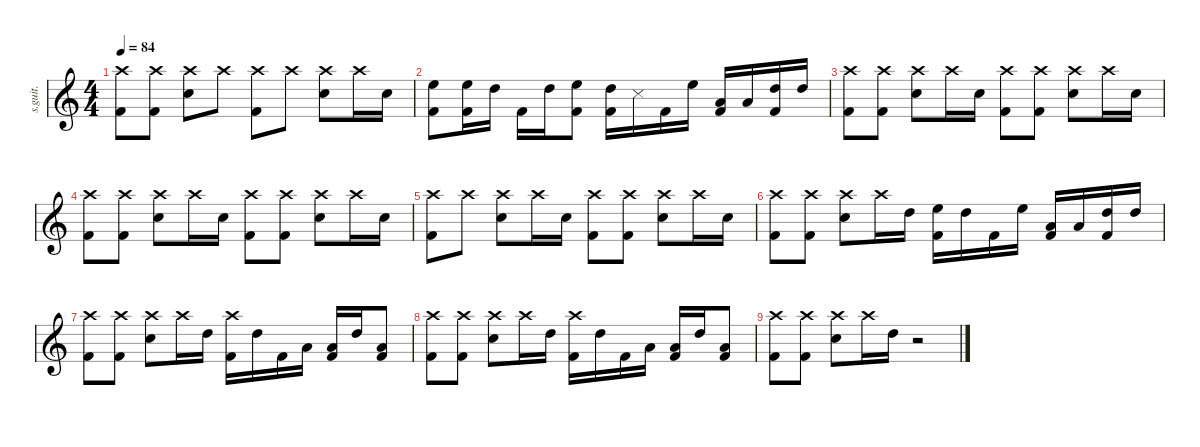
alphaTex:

\defaultSystemsLayout 4
\hideDynamics
\bracketExtendMode nobrackets
\track ("Ringo Starr - Drums" "s.guit.") {instrument percussion}
\staff {score}
\articulation defaults
\ts (4 4)
\tempo 84
\clef g2
\ks c
("Crash high (hit)" "Kick (hit) 2").8{lyrics (0 "") lyrics (1 "") lyrics (2 "") lyrics (3 "") lyrics (4 "") dy f} ("Kick (hit) 2" "Crash high (hit)").8{lyrics (0 "") lyrics (1 "") lyrics (2 "") lyrics (3 "") lyrics (4 "")} ("Crash high (hit)" "Snare (hit) 2").8{lyrics (0 "") lyrics (1 "") lyrics (2 "") lyrics (3 "") lyrics (4 "")} "Crash high (hit)".8{lyrics (0 "") lyrics (1 "") lyrics (2 "") lyrics (3 "") lyrics (4 "") dy mf} ("Crash high (hit)" "Kick (hit) 2").8{lyrics (0 "") lyrics (1 "") lyrics (2 "") lyrics (3 "") lyrics (4 "") dy f} "Crash high (hit)".8{lyrics (0 "") lyrics (1 "") lyrics (2 "") lyrics (3 "") lyrics (4 "")} ("Crash high (hit)" "Snare (hit) 2").8{lyrics (0 "") lyrics (1 "") lyrics (2 "") lyrics (3 "") lyrics (4 "")} "Crash high (hit)".16{lyrics (0 "") lyrics (1 "") lyrics (2 "") lyrics (3 "") lyrics (4 "") dy mf} "Snare (hit) 2".16{lyrics (0 "") lyrics (1 "") lyrics (2 "") lyrics (3 "") lyrics (4 "")} |
("Kick (hit) 2" "High Floor Tom (hit)").8{lyrics (0 "") lyrics (1 "") lyrics (2 "") lyrics (3 "") lyrics (4 "")} ("Kick (hit) 2" "High Floor Tom (hit)").16{lyrics (0 "") lyrics (1 "") lyrics (2 "") lyrics (3 "") lyrics (4 "")} "High Tom (hit)".16{lyrics (0 "") lyrics (1 "") lyrics (2 "") lyrics (3 "") lyrics (4 "")} "Kick (hit) 2".16{lyrics (0 "") lyrics (1 "") lyrics (2 "") lyrics (3 "") lyrics (4 "")} "High Tom (hit)".16{lyrics (0 "") lyrics (1 "") lyrics (2 "") lyrics (3 "") lyrics (4 "")} ("High Floor Tom (hit)" "Kick (hit) 2").8{lyrics (0 "") lyrics (1 "") lyrics (2 "") lyrics (3 "") lyrics (4 "")} ("High Tom (hit)" "Kick (hit) 2").16{lyrics (0 "") lyrics (1 "") lyrics (2 "") lyrics (3 "") lyrics (4 "")} "Snare (side stick) 3".16{lyrics (0 "") lyrics (1 "") lyrics (2 "") lyrics (3 "") lyrics (4 "")} "Kick (hit) 2".16{lyrics (0 "") lyrics (1 "") lyrics (2 "") lyrics (3 "") lyrics (4 "")} "High Floor Tom (hit)".16{lyrics (0 "") lyrics (1 "") lyrics (2 "") lyrics (3 "") lyrics (4 "")} ("Low Tom (hit)" "Kick (hit) 2").16{lyrics (0 "") lyrics (1 "") lyrics (2 "") lyrics (3 "") lyrics (4 "")} "Low Tom (hit)".16{lyrics (0 "") lyrics (1 "") lyrics (2 "") lyrics (3 "") lyrics (4 "")} ("High Tom (hit)" "Kick (hit) 2").16{lyrics (0 "") lyrics (1 "") lyrics (2 "") lyrics (3 "") lyrics (4 "")} "High Tom (hit)".16{lyrics (0 "") lyrics (1 "") lyrics (2 "") lyrics (3 "") lyrics (4 "")} |
("Crash high (hit)" "Kick (hit) 2").8{lyrics (0 "") lyrics (1 "") lyrics (2 "") lyrics (3 "") lyrics (4 "") dy f} ("Kick (hit) 2" "Crash high (hit)").8{lyrics (0 "") lyrics (1 "") lyrics (2 "") lyrics (3 "") lyrics (4 "")} ("Crash high (hit)" "Snare (hit) 2").8{lyrics (0 "") lyrics (1 "") lyrics (2 "") lyrics (3 "") lyrics (4 "")} "Crash high (hit)".16{lyrics (0 "") lyrics (1 "") lyrics (2 "") lyrics (3 "") lyrics (4 "") dy mf} "Snare (hit) 2".16{lyrics (0 "") lyrics (1 "") lyrics (2 "") lyrics (3 "") lyrics (4 "")} ("Crash high (hit)" "Kick (hit) 2").8{lyrics (0 "") lyrics (1 "") lyrics (2 "") lyrics (3 "") lyrics (4 "") dy f} ("Kick (hit) 2" "Crash high (hit)").8{lyrics (0 "") lyrics (1 "") lyrics (2 "") lyrics (3 "") lyrics (4 "")} ("Crash high (hit)" "Snare (hit) 2").8{lyrics (0 "") lyrics (1 "") lyrics (2 "") lyrics (3 "") lyrics (4 "")} "Crash high (hit)".16{lyrics (0 "") lyrics (1 "") lyrics (2 "") lyrics (3 "") lyrics (4 "") dy mf} "Snare (hit) 2".16{lyrics (0 "") lyrics (1 "") lyrics (2 "") lyrics (3 "") lyrics (4 "")} |
("Crash high (hit)" "Kick (hit) 2").8{lyrics (0 "") lyrics (1 "") lyrics (2 "") lyrics (3 "") lyrics (4 "") dy f} ("Kick (hit) 2" "Crash high (hit)").8{lyrics (0 "") lyrics (1 "") lyrics (2 "") lyrics (3 "") lyrics (4 "")} ("Crash high (hit)" "Snare (hit) 2").8{lyrics (0 "") lyrics (1 "") lyrics (2 "") lyrics (3 "") lyrics (4 "")} "Crash high (hit)".16{lyrics (0 "") lyrics (1 "") lyrics (2 "") lyrics (3 "") lyrics (4 "") dy mf} "Snare (hit) 2".16{lyrics (0 "") lyrics (1 "") lyrics (2 "") lyrics (3 "") lyrics (4 "")} ("Crash high (hit)" "Kick (hit) 2").8{lyrics (0 "") lyrics (1 "") lyrics (2 "") lyrics (3 "") lyrics (4 "") dy f} ("Kick (hit) 2" "Crash high (hit)").8{lyrics (0 "") lyrics (1 "") lyrics (2 "") lyrics (3 "") lyrics (4 "")} ("Crash high (hit)" "Snare (hit) 2").8{lyrics (0 "") lyrics (1 "") lyrics (2 "") lyrics (3 "") lyrics (4 "")} "Crash high (hit)".16{lyrics (0 "") lyrics (1 "") lyrics (2 "") lyrics (3 "") lyrics (4 "") dy mf} "Snare (hit) 2".16{lyrics (0 "") lyrics (1 "") lyrics (2 "") lyrics (3 "") lyrics (4 "")} |
("Crash high (hit)" "Kick (hit) 2").8{lyrics (0 "") lyrics (1 "") lyrics (2 "") lyrics (3 "") lyrics (4 "") dy f} "Crash high (hit)".8{lyrics (0 "") lyrics (1 "") lyrics (2 "") lyrics (3 "") lyrics (4 "") dy mf} ("Crash high (hit)" "Snare (hit) 2").8{lyrics (0 "") lyrics (1 "") lyrics (2 "") lyrics (3 "") lyrics (4 "") dy f} "Crash high (hit)".16{lyrics (0 "") lyrics (1 "") lyrics (2 "") lyrics (3 "") lyrics (4 "") dy mf} "Snare (hit) 2".16{lyrics (0 "") lyrics (1 "") lyrics (2 "") lyrics (3 "") lyrics (4 "")} ("Crash high (hit)" "Kick (hit) 2").8{lyrics (0 "") lyrics (1 "") lyrics (2 "") lyrics (3 "") lyrics (4 "") dy f} ("Kick (hit) 2" "Crash high (hit)").8{lyrics (0 "") lyrics (1 "") lyrics (2 "") lyrics (3 "") lyrics (4 "")} ("Crash high (hit)" "Snare (hit) 2").8{lyrics (0 "") lyrics (1 "") lyrics (2 "") lyrics (3 "") lyrics (4 "")} "Crash high (hit)".16{lyrics (0 "") lyrics (1 "") lyrics (2 "") lyrics (3 "") lyrics (4 "") dy mf} "Snare (hit) 2".16{lyrics (0 "") lyrics (1 "") lyrics (2 "") lyrics (3 "") lyrics (4 "")} |
("Crash high (hit)" "Kick (hit) 2").8{lyrics (0 "") lyrics (1 "") lyrics (2 "") lyrics (3 "") lyrics (4 "") dy f} ("Kick (hit) 2" "Crash high (hit)").8{lyrics (0 "") lyrics (1 "") lyrics (2 "") lyrics (3 "") lyrics (4 "")} ("Crash high (hit)" "Snare (hit) 2").8{lyrics (0 "") lyrics (1 "") lyrics (2 "") lyrics (3 "") lyrics (4 "")} "Crash high (hit)".16{lyrics (0 "") lyrics (1 "") lyrics (2 "") lyrics (3 "") lyrics (4 "") dy mf} "High Tom (hit)".16{lyrics (0 "") lyrics (1 "") lyrics (2 "") lyrics (3 "") lyrics (4 "")} ("Kick (hit) 2" "High Floor Tom (hit)").16{lyrics (0 "") lyrics (1 "") lyrics (2 "") lyrics (3 "") lyrics (4 "") dy f} "High Tom (hit)".16{lyrics (0 "") lyrics (1 "") lyrics (2 "") lyrics (3 "") lyrics (4 "")} "Kick (hit) 2".16{lyrics (0 "") lyrics (1 "") lyrics (2 "") lyrics (3 "") lyrics (4 "")} "High Floor Tom (hit)".16{lyrics (0 "") lyrics (1 "") lyrics (2 "") lyrics (3 "") lyrics (4 "")} ("Kick (hit) 2" "Low Tom (hit)").16{lyrics (0 "") lyrics (1 "") lyrics (2 "") lyrics (3 "") lyrics (4 "")} "Low Tom (hit)".16{lyrics (0 "") lyrics (1 "") lyrics (2 "") lyrics (3 "") lyrics (4 "")} ("Kick (hit) 2" "High Tom (hit)").16{lyrics (0 "") lyrics (1 "") lyrics (2 "") lyrics (3 "") lyrics (4 "")} "High Tom (hit)".16{lyrics (0 "") lyrics (1 "") lyrics (2 "") lyrics (3 "") lyrics (4 "")} |
("Crash high (hit)" "Kick (hit) 2").8{lyrics (0 "") lyrics (1 "") lyrics (2 "") lyrics (3 "") lyrics (4 "")} ("Kick (hit) 2" "Crash high (hit)").8{lyrics (0 "") lyrics (1 "") lyrics (2 "") lyrics (3 "") lyrics (4 "")} ("Crash high (hit)" "Snare (hit) 2").8{lyrics (0 "") lyrics (1 "") lyrics (2 "") lyrics (3 "") lyrics (4 "")} "Crash high (hit)".16{lyrics (0 "") lyrics (1 "") lyrics (2 "") lyrics (3 "") lyrics (4 "") dy mf} "High Tom (hit)".16{lyrics (0 "") lyrics (1 "") lyrics (2 "") lyrics (3 "") lyrics (4 "")} ("Kick (hit) 2" "Crash high (hit)").16{lyrics (0 "") lyrics (1 "") lyrics (2 "") lyrics (3 "") lyrics (4 "") dy f} "High Tom (hit)".16{lyrics (0 "") lyrics (1 "") lyrics (2 "") lyrics (3 "") lyrics (4 "")} "Kick (hit) 2".16{lyrics (0 "") lyrics (1 "") lyrics (2 "") lyrics (3 "") lyrics (4 "")} "Low Tom (hit)".16{lyrics (0 "") lyrics (1 "") lyrics (2 "") lyrics (3 "") lyrics (4 "")} ("Low Tom (hit)" "Kick (hit) 2").16{lyrics (0 "") lyrics (1 "") lyrics (2 "") lyrics (3 "") lyrics (4 "")} "High Tom (hit)".16{lyrics (0 "") lyrics (1 "") lyrics (2 "") lyrics (3 "") lyrics (4 "")} ("Low Tom (hit)" "Kick (hit) 2").8{lyrics (0 "") lyrics (1 "") lyrics (2 "") lyrics (3 "") lyrics (4 "")} |
("Crash high (hit)" "Kick (hit) 2").8{lyrics (0 "") lyrics (1 "") lyrics (2 "") lyrics (3 "") lyrics (4 "")} ("Kick (hit) 2" "Crash high (hit)").8{lyrics (0 "") lyrics (1 "") lyrics (2 "") lyrics (3 "") lyrics (4 "")} ("Crash high (hit)" "Snare (hit) 2").8{lyrics (0 "") lyrics (1 "") lyrics (2 "") lyrics (3 "") lyrics (4 "")} "Crash high (hit)".16{lyrics (0 "") lyrics (1 "") lyrics (2 "") lyrics (3 "") lyrics (4 "") dy mf} "High Tom (hit)".16{lyrics (0 "") lyrics (1 "") lyrics (2 "") lyrics (3 "") lyrics (4 "")} ("Kick (hit) 2" "Crash high (hit)").16{lyrics (0 "") lyrics (1 "") lyrics (2 "") lyrics (3 "") lyrics (4 "") dy f} "High Tom (hit)".16{lyrics (0 "") lyrics (1 "") lyrics (2 "") lyrics (3 "") lyrics (4 "")} "Kick (hit) 2".16{lyrics (0 "") lyrics (1 "") lyrics (2 "") lyrics (3 "") lyrics (4 "")} "Low Tom (hit)".16{lyrics (0 "") lyrics (1 "") lyrics (2 "") lyrics (3 "") lyrics (4 "")} ("Low Tom (hit)" "Kick (hit) 2").16{lyrics (0 "") lyrics (1 "") lyrics (2 "") lyrics (3 "") lyrics (4 "")} "High Tom (hit)".16{lyrics (0 "") lyrics (1 "") lyrics (2 "") lyrics (3 "") lyrics (4 "")} ("Low Tom (hit)" "Kick (hit) 2").8{lyrics (0 "") lyrics (1 "") lyrics (2 "") lyrics (3 "") lyrics (4 "")} |
("Crash high (hit)" "Kick (hit) 2").8{lyrics (0 "") lyrics (1 "") lyrics (2 "") lyrics (3 "") lyrics (4 "")} ("Kick (hit) 2" "Crash high (hit)").8{lyrics (0 "") lyrics (1 "") lyrics (2 "") lyrics (3 "") lyrics (4 "")} ("Crash high (hit)" "Snare (hit) 2").8{lyrics (0 "") lyrics (1 "") lyrics (2 "") lyrics (3 "") lyrics (4 "")} "Crash high (hit)".16{lyrics (0 "") lyrics (1 "") lyrics (2 "") lyrics (3 "") lyrics (4 "") dy mf} "High Tom (hit)".16{lyrics (0 "") lyrics (1 "") lyrics (2 "") lyrics (3 "") lyrics (4 "")} r.2
